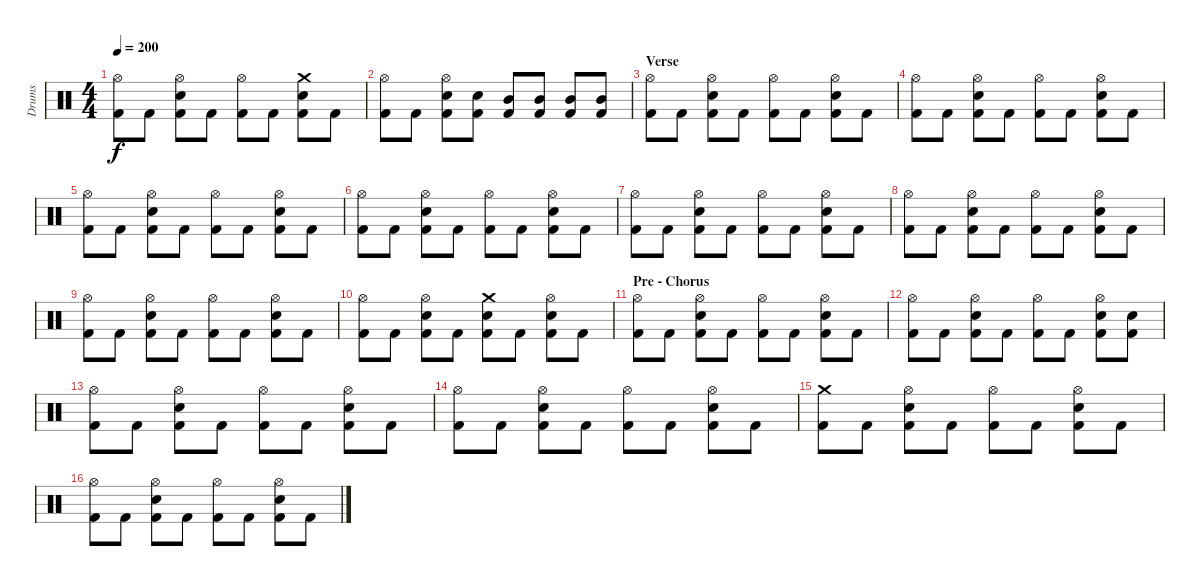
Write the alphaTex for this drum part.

\track ("Drums" "Drums") {instrument percussion}
\staff {score}
\articulation defaults
\ts (4 4)
\tempo 200
\clef neutral
\ks c
("Hi-Hat (open)" "Kick (hit) 2").8{dy f} "Kick (hit) 2".8 ("Hi-Hat (open)" "Snare (hit) 2" "Kick (hit) 2").8 "Kick (hit) 2".8 ("Hi-Hat (open)" "Kick (hit) 2").8 "Kick (hit) 2".8 ("Crash medium (hit)" "Snare (hit) 2" "Kick (hit) 2").8 "Kick (hit) 2".8 |
("Hi-Hat (open)" "Kick (hit) 2").8 "Kick (hit) 2".8 ("Hi-Hat (open)" "Snare (hit) 2" "Kick (hit) 2").8 ("Snare (hit) 2" "Kick (hit) 2").8 ("Mid Tom (hit)" "Kick (hit) 2").8 ("Mid Tom (hit)" "Kick (hit) 2").8 ("Mid Tom (hit)" "Kick (hit) 2").8 ("Mid Tom (hit)" "Kick (hit) 2").8 |
\section ("" "Verse")
("Hi-Hat (open)" "Kick (hit) 2").8 "Kick (hit) 2".8 ("Hi-Hat (open)" "Snare (hit) 2" "Kick (hit) 2").8 "Kick (hit) 2".8 ("Hi-Hat (open)" "Kick (hit) 2").8 "Kick (hit) 2".8 ("Hi-Hat (open)" "Snare (hit) 2" "Kick (hit) 2").8 "Kick (hit) 2".8 |
("Hi-Hat (open)" "Kick (hit) 2").8 "Kick (hit) 2".8 ("Hi-Hat (open)" "Snare (hit) 2" "Kick (hit) 2").8 "Kick (hit) 2".8 ("Hi-Hat (open)" "Kick (hit) 2").8 "Kick (hit) 2".8 ("Hi-Hat (open)" "Snare (hit) 2" "Kick (hit) 2").8 "Kick (hit) 2".8 |
("Hi-Hat (open)" "Kick (hit) 2").8 "Kick (hit) 2".8 ("Hi-Hat (open)" "Snare (hit) 2" "Kick (hit) 2").8 "Kick (hit) 2".8 ("Hi-Hat (open)" "Kick (hit) 2").8 "Kick (hit) 2".8 ("Hi-Hat (open)" "Snare (hit) 2" "Kick (hit) 2").8 "Kick (hit) 2".8 |
("Hi-Hat (open)" "Kick (hit) 2").8 "Kick (hit) 2".8 ("Hi-Hat (open)" "Snare (hit) 2" "Kick (hit) 2").8 "Kick (hit) 2".8 ("Hi-Hat (open)" "Kick (hit) 2").8 "Kick (hit) 2".8 ("Hi-Hat (open)" "Snare (hit) 2" "Kick (hit) 2").8 "Kick (hit) 2".8 |
("Hi-Hat (open)" "Kick (hit) 2").8 "Kick (hit) 2".8 ("Hi-Hat (open)" "Snare (hit) 2" "Kick (hit) 2").8 "Kick (hit) 2".8 ("Hi-Hat (open)" "Kick (hit) 2").8 "Kick (hit) 2".8 ("Hi-Hat (open)" "Snare (hit) 2" "Kick (hit) 2").8 "Kick (hit) 2".8 |
("Hi-Hat (open)" "Kick (hit) 2").8 "Kick (hit) 2".8 ("Hi-Hat (open)" "Snare (hit) 2" "Kick (hit) 2").8 "Kick (hit) 2".8 ("Hi-Hat (open)" "Kick (hit) 2").8 "Kick (hit) 2".8 ("Hi-Hat (open)" "Snare (hit) 2" "Kick (hit) 2").8 "Kick (hit) 2".8 |
("Hi-Hat (open)" "Kick (hit) 2").8 "Kick (hit) 2".8 ("Hi-Hat (open)" "Snare (hit) 2" "Kick (hit) 2").8 "Kick (hit) 2".8 ("Hi-Hat (open)" "Kick (hit) 2").8 "Kick (hit) 2".8 ("Hi-Hat (open)" "Snare (hit) 2" "Kick (hit) 2").8 "Kick (hit) 2".8 |
("Hi-Hat (open)" "Kick (hit) 2").8 "Kick (hit) 2".8 ("Hi-Hat (open)" "Snare (hit) 2" "Kick (hit) 2").8 "Kick (hit) 2".8 ("Crash medium (hit)" "Snare (hit) 2" "Kick (hit) 2").8 "Kick (hit) 2".8 ("Hi-Hat (open)" "Snare (hit) 2" "Kick (hit) 2").8 "Kick (hit) 2".8 |
\section ("" "Pre - Chorus")
("Hi-Hat (open)" "Kick (hit) 2").8 "Kick (hit) 2".8 ("Hi-Hat (open)" "Snare (hit) 2" "Kick (hit) 2").8 "Kick (hit) 2".8 ("Hi-Hat (open)" "Kick (hit) 2").8 "Kick (hit) 2".8 ("Hi-Hat (open)" "Snare (hit) 2" "Kick (hit) 2").8 "Kick (hit) 2".8 |
("Hi-Hat (open)" "Kick (hit) 2").8 "Kick (hit) 2".8 ("Hi-Hat (open)" "Snare (hit) 2" "Kick (hit) 2").8 "Kick (hit) 2".8 ("Hi-Hat (open)" "Kick (hit) 2").8 "Kick (hit) 2".8 ("Hi-Hat (open)" "Snare (hit) 2" "Kick (hit) 2").8 ("Snare (hit) 2" "Kick (hit) 2").8 |
("Hi-Hat (open)" "Kick (hit) 2").8 "Kick (hit) 2".8 ("Hi-Hat (open)" "Snare (hit) 2" "Kick (hit) 2").8 "Kick (hit) 2".8 ("Hi-Hat (open)" "Kick (hit) 2").8 "Kick (hit) 2".8 ("Hi-Hat (open)" "Snare (hit) 2" "Kick (hit) 2").8 "Kick (hit) 2".8 |
("Hi-Hat (open)" "Kick (hit) 2").8 "Kick (hit) 2".8 ("Hi-Hat (open)" "Snare (hit) 2" "Kick (hit) 2").8 "Kick (hit) 2".8 ("Hi-Hat (open)" "Kick (hit) 2").8 "Kick (hit) 2".8 ("Hi-Hat (open)" "Snare (hit) 2" "Kick (hit) 2").8 "Kick (hit) 2".8 |
("Crash medium (hit)" "Kick (hit) 2").8 "Kick (hit) 2".8 ("Hi-Hat (open)" "Snare (hit) 2" "Kick (hit) 2").8 "Kick (hit) 2".8 ("Hi-Hat (open)" "Kick (hit) 2").8 "Kick (hit) 2".8 ("Hi-Hat (open)" "Snare (hit) 2" "Kick (hit) 2").8 "Kick (hit) 2".8 |
("Hi-Hat (open)" "Kick (hit) 2").8 "Kick (hit) 2".8 ("Hi-Hat (open)" "Snare (hit) 2" "Kick (hit) 2").8 "Kick (hit) 2".8 ("Hi-Hat (open)" "Kick (hit) 2").8 "Kick (hit) 2".8 ("Hi-Hat (open)" "Snare (hit) 2" "Kick (hit) 2").8 "Kick (hit) 2".8
